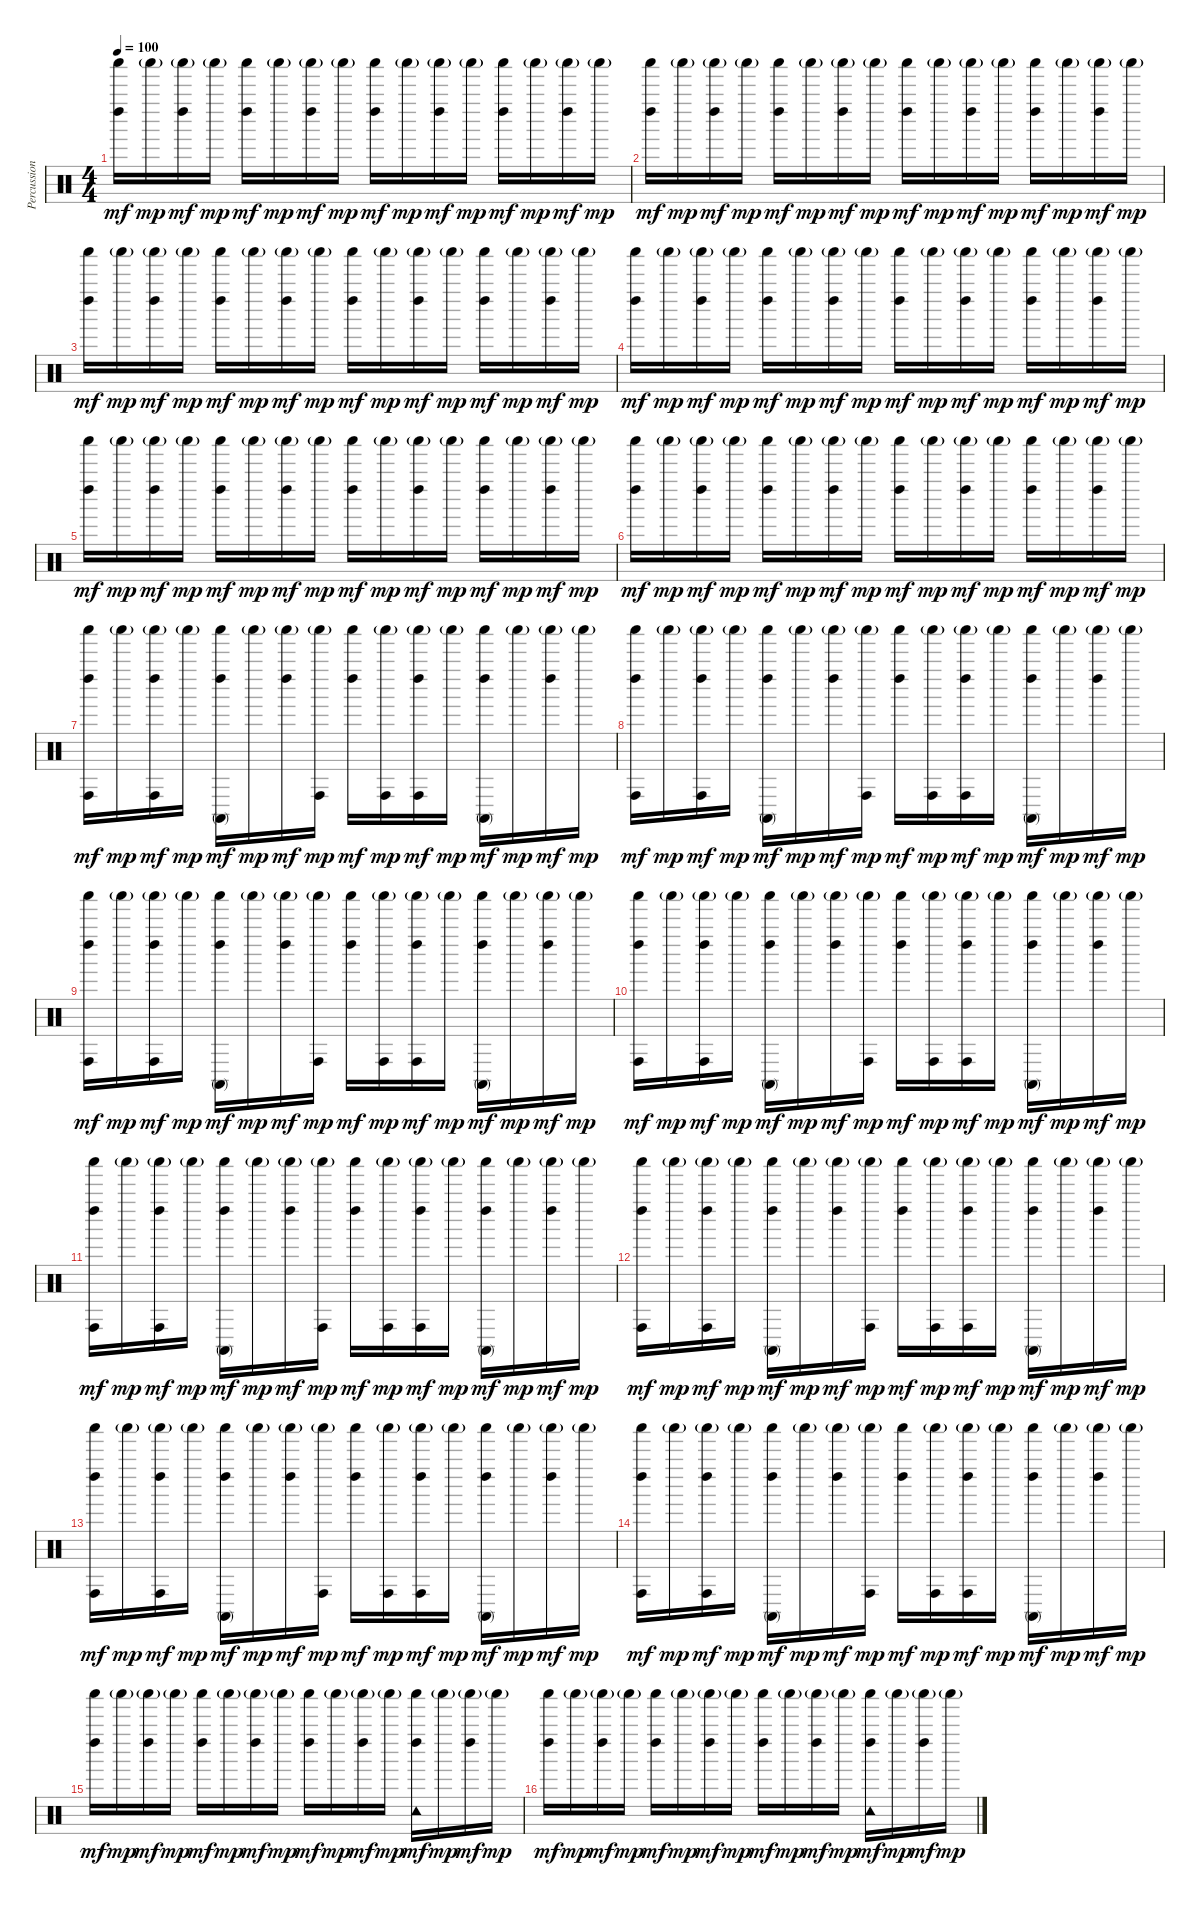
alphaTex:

\track ("Percussion" "Percussion") {instrument percussion}
\staff {score}
\articulation defaults
\ts (4 4)
\tempo 100
\clef neutral
\ks c
("Left Maraca (hit)" "Shaker (hit)").16{dy mf} "Shaker (hit)"{g}.16{dy mp} ("Left Maraca (hit)" "Shaker (hit)"{g}).16{dy mf} "Shaker (hit)"{g}.16{dy mp} ("Left Maraca (hit)" "Shaker (hit)").16{dy mf} "Shaker (hit)"{g}.16{dy mp} ("Left Maraca (hit)" "Shaker (hit)"{g}).16{dy mf} "Shaker (hit)"{g}.16{dy mp} ("Left Maraca (hit)" "Shaker (hit)").16{dy mf} "Shaker (hit)"{g}.16{dy mp} ("Left Maraca (hit)" "Shaker (hit)"{g}).16{dy mf} "Shaker (hit)"{g}.16{dy mp} ("Left Maraca (hit)" "Shaker (hit)").16{dy mf} "Shaker (hit)"{g}.16{dy mp} ("Left Maraca (hit)" "Shaker (hit)"{g}).16{dy mf} "Shaker (hit)"{g}.16{dy mp} |
("Left Maraca (hit)" "Shaker (hit)").16{dy mf} "Shaker (hit)"{g}.16{dy mp} ("Left Maraca (hit)" "Shaker (hit)"{g}).16{dy mf} "Shaker (hit)"{g}.16{dy mp} ("Left Maraca (hit)" "Shaker (hit)").16{dy mf} "Shaker (hit)"{g}.16{dy mp} ("Left Maraca (hit)" "Shaker (hit)"{g}).16{dy mf} "Shaker (hit)"{g}.16{dy mp} ("Left Maraca (hit)" "Shaker (hit)").16{dy mf} "Shaker (hit)"{g}.16{dy mp} ("Left Maraca (hit)" "Shaker (hit)"{g}).16{dy mf} "Shaker (hit)"{g}.16{dy mp} ("Left Maraca (hit)" "Shaker (hit)").16{dy mf} "Shaker (hit)"{g}.16{dy mp} ("Left Maraca (hit)" "Shaker (hit)"{g}).16{dy mf} "Shaker (hit)"{g}.16{dy mp} |
("Left Maraca (hit)" "Shaker (hit)").16{dy mf} "Shaker (hit)"{g}.16{dy mp} ("Left Maraca (hit)" "Shaker (hit)"{g}).16{dy mf} "Shaker (hit)"{g}.16{dy mp} ("Left Maraca (hit)" "Shaker (hit)").16{dy mf} "Shaker (hit)"{g}.16{dy mp} ("Left Maraca (hit)" "Shaker (hit)"{g}).16{dy mf} "Shaker (hit)"{g}.16{dy mp} ("Left Maraca (hit)" "Shaker (hit)").16{dy mf} "Shaker (hit)"{g}.16{dy mp} ("Left Maraca (hit)" "Shaker (hit)"{g}).16{dy mf} "Shaker (hit)"{g}.16{dy mp} ("Left Maraca (hit)" "Shaker (hit)").16{dy mf} "Shaker (hit)"{g}.16{dy mp} ("Left Maraca (hit)" "Shaker (hit)"{g}).16{dy mf} "Shaker (hit)"{g}.16{dy mp} |
("Left Maraca (hit)" "Shaker (hit)").16{dy mf} "Shaker (hit)"{g}.16{dy mp} ("Left Maraca (hit)" "Shaker (hit)"{g}).16{dy mf} "Shaker (hit)"{g}.16{dy mp} ("Left Maraca (hit)" "Shaker (hit)").16{dy mf} "Shaker (hit)"{g}.16{dy mp} ("Left Maraca (hit)" "Shaker (hit)"{g}).16{dy mf} "Shaker (hit)"{g}.16{dy mp} ("Left Maraca (hit)" "Shaker (hit)").16{dy mf} "Shaker (hit)"{g}.16{dy mp} ("Left Maraca (hit)" "Shaker (hit)"{g}).16{dy mf} "Shaker (hit)"{g}.16{dy mp} ("Left Maraca (hit)" "Shaker (hit)").16{dy mf} "Shaker (hit)"{g}.16{dy mp} ("Left Maraca (hit)" "Shaker (hit)"{g}).16{dy mf} "Shaker (hit)"{g}.16{dy mp} |
("Left Maraca (hit)" "Shaker (hit)").16{dy mf} "Shaker (hit)"{g}.16{dy mp} ("Left Maraca (hit)" "Shaker (hit)"{g}).16{dy mf} "Shaker (hit)"{g}.16{dy mp} ("Left Maraca (hit)" "Shaker (hit)").16{dy mf} "Shaker (hit)"{g}.16{dy mp} ("Left Maraca (hit)" "Shaker (hit)"{g}).16{dy mf} "Shaker (hit)"{g}.16{dy mp} ("Left Maraca (hit)" "Shaker (hit)").16{dy mf} "Shaker (hit)"{g}.16{dy mp} ("Left Maraca (hit)" "Shaker (hit)"{g}).16{dy mf} "Shaker (hit)"{g}.16{dy mp} ("Left Maraca (hit)" "Shaker (hit)").16{dy mf} "Shaker (hit)"{g}.16{dy mp} ("Left Maraca (hit)" "Shaker (hit)"{g}).16{dy mf} "Shaker (hit)"{g}.16{dy mp} |
("Left Maraca (hit)" "Shaker (hit)").16{dy mf} "Shaker (hit)"{g}.16{dy mp} ("Left Maraca (hit)" "Shaker (hit)"{g}).16{dy mf} "Shaker (hit)"{g}.16{dy mp} ("Left Maraca (hit)" "Shaker (hit)").16{dy mf} "Shaker (hit)"{g}.16{dy mp} ("Left Maraca (hit)" "Shaker (hit)"{g}).16{dy mf} "Shaker (hit)"{g}.16{dy mp} ("Left Maraca (hit)" "Shaker (hit)").16{dy mf} "Shaker (hit)"{g}.16{dy mp} ("Left Maraca (hit)" "Shaker (hit)"{g}).16{dy mf} "Shaker (hit)"{g}.16{dy mp} ("Left Maraca (hit)" "Shaker (hit)").16{dy mf} "Shaker (hit)"{g}.16{dy mp} ("Left Maraca (hit)" "Shaker (hit)"{g}).16{dy mf} "Shaker (hit)"{g}.16{dy mp} |
("Conga high (hit)" "Left Maraca (hit)" "Shaker (hit)").16{dy mf} "Shaker (hit)"{g}.16{dy mp} ("Conga high (hit)" "Left Maraca (hit)" "Shaker (hit)"{g}).16{dy mf} "Shaker (hit)"{g}.16{dy mp} ("Conga high (mute)" "Left Maraca (hit)" "Shaker (hit)").16{dy mf} "Shaker (hit)"{g}.16{dy mp} ("Left Maraca (hit)" "Shaker (hit)"{g}).16{dy mf} ("Conga high (hit)" "Shaker (hit)"{g}).16{dy mp} ("Left Maraca (hit)" "Shaker (hit)").16{dy mf} ("Conga high (hit)" "Shaker (hit)"{g}).16{dy mp} ("Conga high (hit)" "Left Maraca (hit)" "Shaker (hit)"{g}).16{dy mf} "Shaker (hit)"{g}.16{dy mp} ("Conga high (mute)" "Left Maraca (hit)" "Shaker (hit)").16{dy mf} "Shaker (hit)"{g}.16{dy mp} ("Left Maraca (hit)" "Shaker (hit)"{g}).16{dy mf} "Shaker (hit)"{g}.16{dy mp} |
("Conga high (hit)" "Left Maraca (hit)" "Shaker (hit)").16{dy mf} "Shaker (hit)"{g}.16{dy mp} ("Conga high (hit)" "Left Maraca (hit)" "Shaker (hit)"{g}).16{dy mf} "Shaker (hit)"{g}.16{dy mp} ("Conga high (mute)" "Left Maraca (hit)" "Shaker (hit)").16{dy mf} "Shaker (hit)"{g}.16{dy mp} ("Left Maraca (hit)" "Shaker (hit)"{g}).16{dy mf} ("Conga high (hit)" "Shaker (hit)"{g}).16{dy mp} ("Left Maraca (hit)" "Shaker (hit)").16{dy mf} ("Conga high (hit)" "Shaker (hit)"{g}).16{dy mp} ("Conga high (hit)" "Left Maraca (hit)" "Shaker (hit)"{g}).16{dy mf} "Shaker (hit)"{g}.16{dy mp} ("Conga high (mute)" "Left Maraca (hit)" "Shaker (hit)").16{dy mf} "Shaker (hit)"{g}.16{dy mp} ("Left Maraca (hit)" "Shaker (hit)"{g}).16{dy mf} "Shaker (hit)"{g}.16{dy mp} |
("Conga high (hit)" "Left Maraca (hit)" "Shaker (hit)").16{dy mf} "Shaker (hit)"{g}.16{dy mp} ("Conga high (hit)" "Left Maraca (hit)" "Shaker (hit)"{g}).16{dy mf} "Shaker (hit)"{g}.16{dy mp} ("Conga high (mute)" "Left Maraca (hit)" "Shaker (hit)").16{dy mf} "Shaker (hit)"{g}.16{dy mp} ("Left Maraca (hit)" "Shaker (hit)"{g}).16{dy mf} ("Conga high (hit)" "Shaker (hit)"{g}).16{dy mp} ("Left Maraca (hit)" "Shaker (hit)").16{dy mf} ("Conga high (hit)" "Shaker (hit)"{g}).16{dy mp} ("Conga high (hit)" "Left Maraca (hit)" "Shaker (hit)"{g}).16{dy mf} "Shaker (hit)"{g}.16{dy mp} ("Conga high (mute)" "Left Maraca (hit)" "Shaker (hit)").16{dy mf} "Shaker (hit)"{g}.16{dy mp} ("Left Maraca (hit)" "Shaker (hit)"{g}).16{dy mf} "Shaker (hit)"{g}.16{dy mp} |
("Conga high (hit)" "Left Maraca (hit)" "Shaker (hit)").16{dy mf} "Shaker (hit)"{g}.16{dy mp} ("Conga high (hit)" "Left Maraca (hit)" "Shaker (hit)"{g}).16{dy mf} "Shaker (hit)"{g}.16{dy mp} ("Conga high (mute)" "Left Maraca (hit)" "Shaker (hit)").16{dy mf} "Shaker (hit)"{g}.16{dy mp} ("Left Maraca (hit)" "Shaker (hit)"{g}).16{dy mf} ("Conga high (hit)" "Shaker (hit)"{g}).16{dy mp} ("Left Maraca (hit)" "Shaker (hit)").16{dy mf} ("Conga high (hit)" "Shaker (hit)"{g}).16{dy mp} ("Conga high (hit)" "Left Maraca (hit)" "Shaker (hit)"{g}).16{dy mf} "Shaker (hit)"{g}.16{dy mp} ("Conga high (mute)" "Left Maraca (hit)" "Shaker (hit)").16{dy mf} "Shaker (hit)"{g}.16{dy mp} ("Left Maraca (hit)" "Shaker (hit)"{g}).16{dy mf} "Shaker (hit)"{g}.16{dy mp} |
("Conga high (hit)" "Left Maraca (hit)" "Shaker (hit)").16{dy mf} "Shaker (hit)"{g}.16{dy mp} ("Conga high (hit)" "Left Maraca (hit)" "Shaker (hit)"{g}).16{dy mf} "Shaker (hit)"{g}.16{dy mp} ("Conga high (mute)" "Left Maraca (hit)" "Shaker (hit)").16{dy mf} "Shaker (hit)"{g}.16{dy mp} ("Left Maraca (hit)" "Shaker (hit)"{g}).16{dy mf} ("Conga high (hit)" "Shaker (hit)"{g}).16{dy mp} ("Left Maraca (hit)" "Shaker (hit)").16{dy mf} ("Conga high (hit)" "Shaker (hit)"{g}).16{dy mp} ("Conga high (hit)" "Left Maraca (hit)" "Shaker (hit)"{g}).16{dy mf} "Shaker (hit)"{g}.16{dy mp} ("Conga high (mute)" "Left Maraca (hit)" "Shaker (hit)").16{dy mf} "Shaker (hit)"{g}.16{dy mp} ("Left Maraca (hit)" "Shaker (hit)"{g}).16{dy mf} "Shaker (hit)"{g}.16{dy mp} |
("Conga high (hit)" "Left Maraca (hit)" "Shaker (hit)").16{dy mf} "Shaker (hit)"{g}.16{dy mp} ("Conga high (hit)" "Left Maraca (hit)" "Shaker (hit)"{g}).16{dy mf} "Shaker (hit)"{g}.16{dy mp} ("Conga high (mute)" "Left Maraca (hit)" "Shaker (hit)").16{dy mf} "Shaker (hit)"{g}.16{dy mp} ("Left Maraca (hit)" "Shaker (hit)"{g}).16{dy mf} ("Conga high (hit)" "Shaker (hit)"{g}).16{dy mp} ("Left Maraca (hit)" "Shaker (hit)").16{dy mf} ("Conga high (hit)" "Shaker (hit)"{g}).16{dy mp} ("Conga high (hit)" "Left Maraca (hit)" "Shaker (hit)"{g}).16{dy mf} "Shaker (hit)"{g}.16{dy mp} ("Conga high (mute)" "Left Maraca (hit)" "Shaker (hit)").16{dy mf} "Shaker (hit)"{g}.16{dy mp} ("Left Maraca (hit)" "Shaker (hit)"{g}).16{dy mf} "Shaker (hit)"{g}.16{dy mp} |
("Conga high (hit)" "Left Maraca (hit)" "Shaker (hit)").16{dy mf} "Shaker (hit)"{g}.16{dy mp} ("Conga high (hit)" "Left Maraca (hit)" "Shaker (hit)"{g}).16{dy mf} "Shaker (hit)"{g}.16{dy mp} ("Conga high (mute)" "Left Maraca (hit)" "Shaker (hit)").16{dy mf} "Shaker (hit)"{g}.16{dy mp} ("Left Maraca (hit)" "Shaker (hit)"{g}).16{dy mf} ("Conga high (hit)" "Shaker (hit)"{g}).16{dy mp} ("Left Maraca (hit)" "Shaker (hit)").16{dy mf} ("Conga high (hit)" "Shaker (hit)"{g}).16{dy mp} ("Conga high (hit)" "Left Maraca (hit)" "Shaker (hit)"{g}).16{dy mf} "Shaker (hit)"{g}.16{dy mp} ("Conga high (mute)" "Left Maraca (hit)" "Shaker (hit)").16{dy mf} "Shaker (hit)"{g}.16{dy mp} ("Left Maraca (hit)" "Shaker (hit)"{g}).16{dy mf} "Shaker (hit)"{g}.16{dy mp} |
("Conga high (hit)" "Left Maraca (hit)" "Shaker (hit)").16{dy mf} "Shaker (hit)"{g}.16{dy mp} ("Conga high (hit)" "Left Maraca (hit)" "Shaker (hit)"{g}).16{dy mf} "Shaker (hit)"{g}.16{dy mp} ("Conga high (mute)" "Left Maraca (hit)" "Shaker (hit)").16{dy mf} "Shaker (hit)"{g}.16{dy mp} ("Left Maraca (hit)" "Shaker (hit)"{g}).16{dy mf} ("Conga high (hit)" "Shaker (hit)"{g}).16{dy mp} ("Left Maraca (hit)" "Shaker (hit)").16{dy mf} ("Conga high (hit)" "Shaker (hit)"{g}).16{dy mp} ("Conga high (hit)" "Left Maraca (hit)" "Shaker (hit)"{g}).16{dy mf} "Shaker (hit)"{g}.16{dy mp} ("Conga high (mute)" "Left Maraca (hit)" "Shaker (hit)").16{dy mf} "Shaker (hit)"{g}.16{dy mp} ("Left Maraca (hit)" "Shaker (hit)"{g}).16{dy mf} "Shaker (hit)"{g}.16{dy mp} |
("Left Maraca (hit)" "Shaker (hit)").16{dy mf} "Shaker (hit)"{g}.16{dy mp} ("Left Maraca (hit)" "Shaker (hit)"{g}).16{dy mf} "Shaker (hit)"{g}.16{dy mp} ("Left Maraca (hit)" "Shaker (hit)").16{dy mf} "Shaker (hit)"{g}.16{dy mp} ("Left Maraca (hit)" "Shaker (hit)"{g}).16{dy mf} "Shaker (hit)"{g}.16{dy mp} ("Left Maraca (hit)" "Shaker (hit)").16{dy mf} "Shaker (hit)"{g}.16{dy mp} ("Left Maraca (hit)" "Shaker (hit)"{g}).16{dy mf} "Shaker (hit)"{g}.16{dy mp} ("Tambourine (hit)" "Left Maraca (hit)" "Shaker (hit)").16{dy mf} "Shaker (hit)"{g}.16{dy mp} ("Left Maraca (hit)" "Shaker (hit)"{g}).16{dy mf} "Shaker (hit)"{g}.16{dy mp} |
("Left Maraca (hit)" "Shaker (hit)").16{dy mf} "Shaker (hit)"{g}.16{dy mp} ("Left Maraca (hit)" "Shaker (hit)"{g}).16{dy mf} "Shaker (hit)"{g}.16{dy mp} ("Left Maraca (hit)" "Shaker (hit)").16{dy mf} "Shaker (hit)"{g}.16{dy mp} ("Left Maraca (hit)" "Shaker (hit)"{g}).16{dy mf} "Shaker (hit)"{g}.16{dy mp} ("Left Maraca (hit)" "Shaker (hit)").16{dy mf} "Shaker (hit)"{g}.16{dy mp} ("Left Maraca (hit)" "Shaker (hit)"{g}).16{dy mf} "Shaker (hit)"{g}.16{dy mp} ("Tambourine (hit)" "Left Maraca (hit)" "Shaker (hit)").16{dy mf} "Shaker (hit)"{g}.16{dy mp} ("Left Maraca (hit)" "Shaker (hit)"{g}).16{dy mf} "Shaker (hit)"{g}.16{dy mp}
